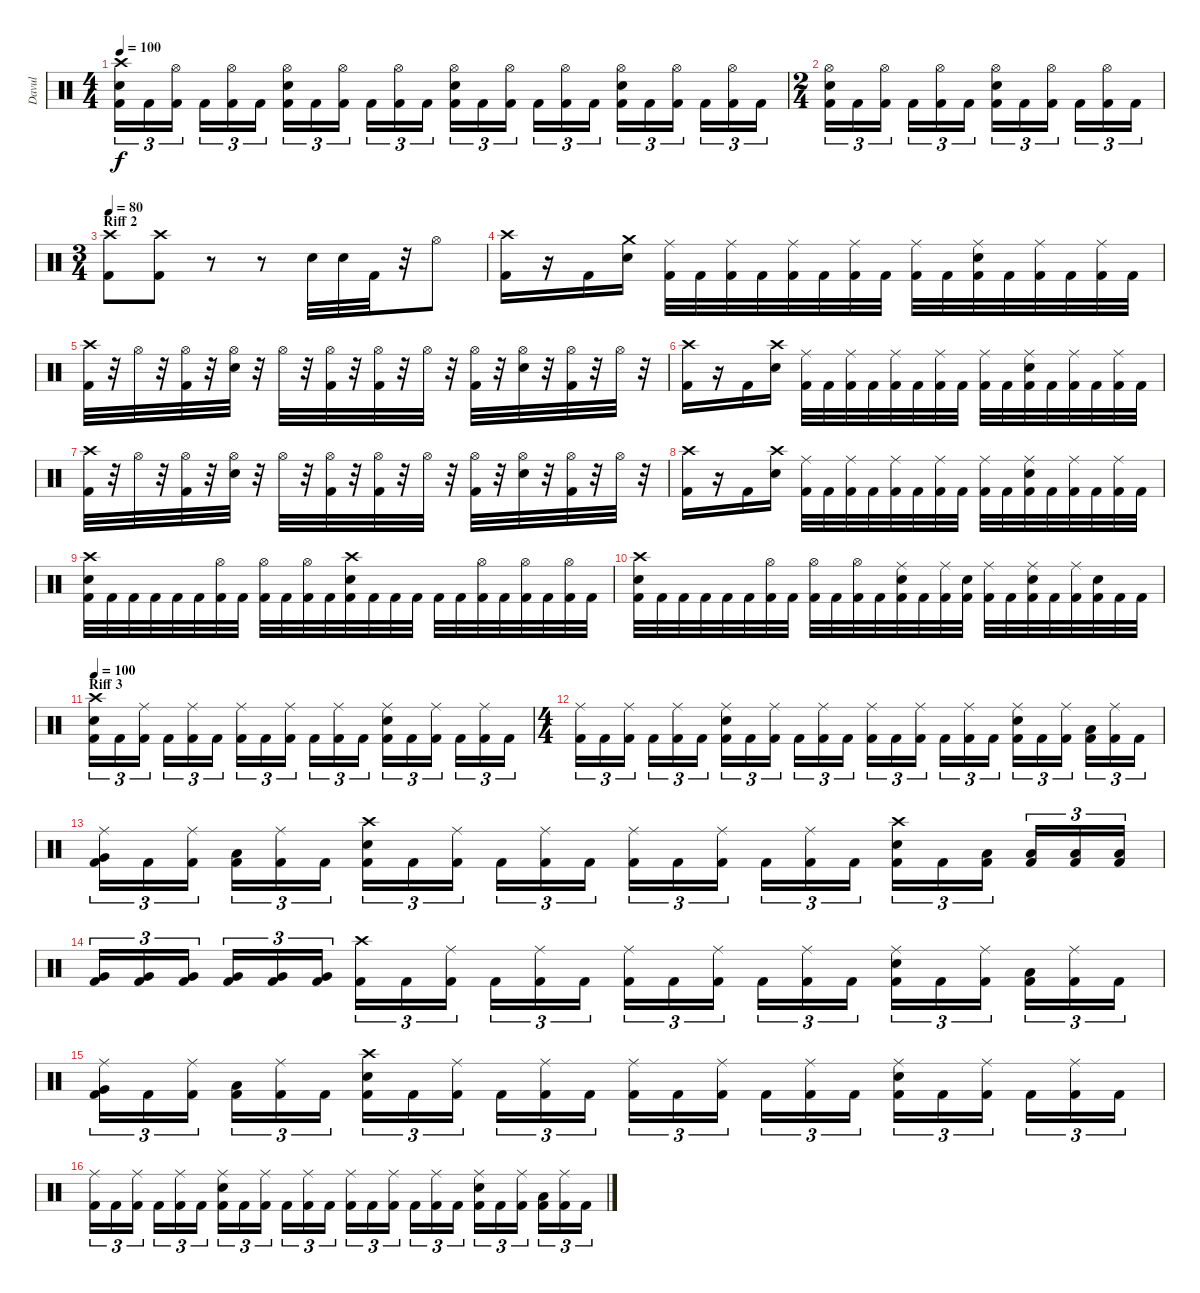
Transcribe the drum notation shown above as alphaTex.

\track ("Davul" "Davul") {instrument percussion}
\staff {score}
\articulation defaults
\ts (4 4)
\tempo 100
\clef neutral
\ks c
("Crash high (hit)" "Electric Snare (hit)" "Kick (hit) 2").16{tu (3 2) dy f} "Kick (hit) 2".16{tu (3 2)} ("Hi-Hat (open)" "Kick (hit) 2").16{tu (3 2)} "Kick (hit) 2".16{tu (3 2)} ("Hi-Hat (open)" "Kick (hit) 2").16{tu (3 2)} "Kick (hit) 2".16{tu (3 2)} ("Hi-Hat (open)" "Electric Snare (hit)" "Kick (hit) 2").16{tu (3 2)} "Kick (hit) 2".16{tu (3 2)} ("Hi-Hat (open)" "Kick (hit) 2").16{tu (3 2)} "Kick (hit) 2".16{tu (3 2)} ("Hi-Hat (open)" "Kick (hit) 2").16{tu (3 2)} "Kick (hit) 2".16{tu (3 2)} ("Hi-Hat (open)" "Electric Snare (hit)" "Kick (hit) 2").16{tu (3 2)} "Kick (hit) 2".16{tu (3 2)} ("Hi-Hat (open)" "Kick (hit) 2").16{tu (3 2)} "Kick (hit) 2".16{tu (3 2)} ("Hi-Hat (open)" "Kick (hit) 2").16{tu (3 2)} "Kick (hit) 2".16{tu (3 2)} ("Hi-Hat (open)" "Electric Snare (hit)" "Kick (hit) 2").16{tu (3 2)} "Kick (hit) 2".16{tu (3 2)} ("Hi-Hat (open)" "Kick (hit) 2").16{tu (3 2)} "Kick (hit) 2".16{tu (3 2)} ("Hi-Hat (open)" "Kick (hit) 2").16{tu (3 2)} "Kick (hit) 2".16{tu (3 2)} |
\ts (2 4)
("Hi-Hat (open)" "Electric Snare (hit)" "Kick (hit) 2").16{tu (3 2)} "Kick (hit) 2".16{tu (3 2)} ("Hi-Hat (open)" "Kick (hit) 2").16{tu (3 2)} "Kick (hit) 2".16{tu (3 2)} ("Hi-Hat (open)" "Kick (hit) 2").16{tu (3 2)} "Kick (hit) 2".16{tu (3 2)} ("Hi-Hat (open)" "Electric Snare (hit)" "Kick (hit) 2").16{tu (3 2)} "Kick (hit) 2".16{tu (3 2)} ("Hi-Hat (open)" "Kick (hit) 2").16{tu (3 2)} "Kick (hit) 2".16{tu (3 2)} ("Hi-Hat (open)" "Kick (hit) 2").16{tu (3 2)} "Kick (hit) 2".16{tu (3 2)} |
\ts (3 4)
\section ("" "Riff 2")
\tempo 80
("Crash high (hit)" "Kick (hit) 2").8 ("Crash high (hit)" "Kick (hit) 2").8 r.8 r.8 "Electric Snare (hit)".32 "Electric Snare (hit)".32 "Kick (hit) 2".32 r.32 "Hi-Hat (open)".8 |
("Crash high (hit)" "Kick (hit) 2").16 r.16 "Kick (hit) 2".16 ("Crash medium (hit)" "Electric Snare (hit)").16 ("Ride (middle)" "Kick (hit) 2").32 "Kick (hit) 2".32 ("Ride (middle)" "Kick (hit) 2").32 "Kick (hit) 2".32 ("Ride (middle)" "Kick (hit) 2").32 "Kick (hit) 2".32 ("Ride (middle)" "Kick (hit) 2").32 "Kick (hit) 2".32 ("Ride (middle)" "Kick (hit) 2").32 "Kick (hit) 2".32 ("Ride (middle)" "Electric Snare (hit)" "Kick (hit) 2").32 "Kick (hit) 2".32 ("Ride (middle)" "Kick (hit) 2").32 "Kick (hit) 2".32 ("Ride (middle)" "Kick (hit) 2").32 "Kick (hit) 2".32 |
("Crash high (hit)" "Kick (hit) 2").32 r.32 "Hi-Hat (open)".32 r.32 ("Hi-Hat (open)" "Kick (hit) 2").32 r.32 ("Hi-Hat (open)" "Electric Snare (hit)").32 r.32 "Hi-Hat (open)".32 r.32 ("Hi-Hat (open)" "Kick (hit) 2").32 r.32 ("Hi-Hat (open)" "Kick (hit) 2").32 r.32 "Hi-Hat (open)".32 r.32 ("Hi-Hat (open)" "Kick (hit) 2").32 r.32 ("Hi-Hat (open)" "Electric Snare (hit)").32 r.32 ("Hi-Hat (open)" "Kick (hit) 2").32 r.32 "Hi-Hat (open)".32 r.32 |
("Crash high (hit)" "Kick (hit) 2").16 r.16 "Kick (hit) 2".16 ("Crash high (hit)" "Electric Snare (hit)").16 ("Ride (middle)" "Kick (hit) 2").32 "Kick (hit) 2".32 ("Ride (middle)" "Kick (hit) 2").32 "Kick (hit) 2".32 ("Ride (middle)" "Kick (hit) 2").32 "Kick (hit) 2".32 ("Ride (middle)" "Kick (hit) 2").32 "Kick (hit) 2".32 ("Ride (middle)" "Kick (hit) 2").32 "Kick (hit) 2".32 ("Ride (middle)" "Electric Snare (hit)" "Kick (hit) 2").32 "Kick (hit) 2".32 ("Ride (middle)" "Kick (hit) 2").32 "Kick (hit) 2".32 ("Ride (middle)" "Kick (hit) 2").32 "Kick (hit) 2".32 |
("Crash high (hit)" "Kick (hit) 2").32 r.32 "Hi-Hat (open)".32 r.32 ("Hi-Hat (open)" "Kick (hit) 2").32 r.32 ("Hi-Hat (open)" "Electric Snare (hit)").32 r.32 "Hi-Hat (open)".32 r.32 ("Hi-Hat (open)" "Kick (hit) 2").32 r.32 ("Hi-Hat (open)" "Kick (hit) 2").32 r.32 "Hi-Hat (open)".32 r.32 ("Hi-Hat (open)" "Kick (hit) 2").32 r.32 ("Hi-Hat (open)" "Electric Snare (hit)").32 r.32 ("Hi-Hat (open)" "Kick (hit) 2").32 r.32 "Hi-Hat (open)".32 r.32 |
("Crash high (hit)" "Kick (hit) 2").16 r.16 "Kick (hit) 2".16 ("Crash high (hit)" "Electric Snare (hit)").16 ("Ride (middle)" "Kick (hit) 2").32 "Kick (hit) 2".32 ("Ride (middle)" "Kick (hit) 2").32 "Kick (hit) 2".32 ("Ride (middle)" "Kick (hit) 2").32 "Kick (hit) 2".32 ("Ride (middle)" "Kick (hit) 2").32 "Kick (hit) 2".32 ("Ride (middle)" "Kick (hit) 2").32 "Kick (hit) 2".32 ("Ride (middle)" "Electric Snare (hit)" "Kick (hit) 2").32 "Kick (hit) 2".32 ("Ride (middle)" "Kick (hit) 2").32 "Kick (hit) 2".32 ("Ride (middle)" "Kick (hit) 2").32 "Kick (hit) 2".32 |
("Crash high (hit)" "Electric Snare (hit)" "Kick (hit) 2").32 "Kick (hit) 2".32 "Kick (hit) 2".32 "Kick (hit) 2".32 "Kick (hit) 2".32 "Kick (hit) 2".32 ("Hi-Hat (open)" "Kick (hit) 2").32 "Kick (hit) 2".32 ("Hi-Hat (open)" "Kick (hit) 2").32 "Kick (hit) 2".32 ("Hi-Hat (open)" "Kick (hit) 2").32 "Kick (hit) 2".32 ("Crash high (hit)" "Electric Snare (hit)" "Kick (hit) 2").32 "Kick (hit) 2".32 "Kick (hit) 2".32 "Kick (hit) 2".32 "Kick (hit) 2".32 "Kick (hit) 2".32 ("Hi-Hat (open)" "Kick (hit) 2").32 "Kick (hit) 2".32 ("Hi-Hat (open)" "Kick (hit) 2").32 "Kick (hit) 2".32 ("Hi-Hat (open)" "Kick (hit) 2").32 "Kick (hit) 2".32 |
("Crash high (hit)" "Electric Snare (hit)" "Kick (hit) 2").32 "Kick (hit) 2".32 "Kick (hit) 2".32 "Kick (hit) 2".32 "Kick (hit) 2".32 "Kick (hit) 2".32 ("Hi-Hat (open)" "Kick (hit) 2").32 "Kick (hit) 2".32 ("Hi-Hat (open)" "Kick (hit) 2").32 "Kick (hit) 2".32 ("Hi-Hat (open)" "Kick (hit) 2").32 "Kick (hit) 2".32 ("Ride (middle)" "Electric Snare (hit)" "Kick (hit) 2").32 "Kick (hit) 2".32 ("Ride (middle)" "Kick (hit) 2").32 ("Electric Snare (hit)" "Kick (hit) 2").32 ("Ride (middle)" "Kick (hit) 2").32 "Kick (hit) 2".32 ("Ride (middle)" "Electric Snare (hit)" "Kick (hit) 2").32 "Kick (hit) 2".32 ("Ride (middle)" "Kick (hit) 2").32 ("Electric Snare (hit)" "Kick (hit) 2").32 "Kick (hit) 2".32 "Kick (hit) 2".32 |
\section ("" "Riff 3")
\tempo 100
("Crash high (hit)" "Electric Snare (hit)" "Kick (hit) 2").16{tu (3 2)} "Kick (hit) 2".16{tu (3 2)} ("Ride (middle)" "Kick (hit) 2").16{tu (3 2)} "Kick (hit) 2".16{tu (3 2)} ("Ride (middle)" "Kick (hit) 2").16{tu (3 2)} "Kick (hit) 2".16{tu (3 2)} ("Ride (middle)" "Kick (hit) 2").16{tu (3 2)} "Kick (hit) 2".16{tu (3 2)} ("Ride (middle)" "Kick (hit) 2").16{tu (3 2)} "Kick (hit) 2".16{tu (3 2)} ("Ride (middle)" "Kick (hit) 2").16{tu (3 2)} "Kick (hit) 2".16{tu (3 2)} ("Ride (middle)" "Electric Snare (hit)" "Kick (hit) 2").16{tu (3 2)} "Kick (hit) 2".16{tu (3 2)} ("Ride (middle)" "Kick (hit) 2").16{tu (3 2)} "Kick (hit) 2".16{tu (3 2)} ("Ride (middle)" "Kick (hit) 2").16{tu (3 2)} "Kick (hit) 2".16{tu (3 2)} |
\ts (4 4)
("Ride (middle)" "Kick (hit) 2").16{tu (3 2)} "Kick (hit) 2".16{tu (3 2)} ("Ride (middle)" "Kick (hit) 2").16{tu (3 2)} "Kick (hit) 2".16{tu (3 2)} ("Ride (middle)" "Kick (hit) 2").16{tu (3 2)} "Kick (hit) 2".16{tu (3 2)} ("Ride (middle)" "Electric Snare (hit)" "Kick (hit) 2").16{tu (3 2)} "Kick (hit) 2".16{tu (3 2)} ("Ride (middle)" "Kick (hit) 2").16{tu (3 2)} "Kick (hit) 2".16{tu (3 2)} ("Ride (middle)" "Kick (hit) 2").16{tu (3 2)} "Kick (hit) 2".16{tu (3 2)} ("Ride (middle)" "Kick (hit) 2").16{tu (3 2)} "Kick (hit) 2".16{tu (3 2)} ("Ride (middle)" "Kick (hit) 2").16{tu (3 2)} "Kick (hit) 2".16{tu (3 2)} ("Ride (middle)" "Kick (hit) 2").16{tu (3 2)} "Kick (hit) 2".16{tu (3 2)} ("Ride (middle)" "Electric Snare (hit)" "Kick (hit) 2").16{tu (3 2)} "Kick (hit) 2".16{tu (3 2)} ("Ride (middle)" "Kick (hit) 2").16{tu (3 2)} ("Low Tom (hit)" "Kick (hit) 2").16{tu (3 2)} ("Ride (middle)" "Kick (hit) 2").16{tu (3 2)} "Kick (hit) 2".16{tu (3 2)} |
("Ride (middle)" "Very Low Tom (hit)" "Kick (hit) 2").16{tu (3 2)} "Kick (hit) 2".16{tu (3 2)} ("Ride (middle)" "Kick (hit) 2").16{tu (3 2)} ("Low Floor Tom (hit)" "Kick (hit) 2").16{tu (3 2)} ("Ride (middle)" "Kick (hit) 2").16{tu (3 2)} "Kick (hit) 2".16{tu (3 2)} ("Crash high (hit)" "Electric Snare (hit)" "Kick (hit) 2").16{tu (3 2)} "Kick (hit) 2".16{tu (3 2)} ("Ride (middle)" "Kick (hit) 2").16{tu (3 2)} "Kick (hit) 2".16{tu (3 2)} ("Ride (middle)" "Kick (hit) 2").16{tu (3 2)} "Kick (hit) 2".16{tu (3 2)} ("Ride (middle)" "Kick (hit) 2").16{tu (3 2)} "Kick (hit) 2".16{tu (3 2)} ("Ride (middle)" "Kick (hit) 2").16{tu (3 2)} "Kick (hit) 2".16{tu (3 2)} ("Ride (middle)" "Kick (hit) 2").16{tu (3 2)} "Kick (hit) 2".16{tu (3 2)} ("Crash high (hit)" "Electric Snare (hit)" "Kick (hit) 2").16{tu (3 2)} "Kick (hit) 2".16{tu (3 2)} ("Low Tom (hit)" "Kick (hit) 2").16{tu (3 2)} ("Low Tom (hit)" "Kick (hit) 2").16{tu (3 2)} ("Low Tom (hit)" "Kick (hit) 2").16{tu (3 2)} ("Low Tom (hit)" "Kick (hit) 2").16{tu (3 2)} |
("Very Low Tom (hit)" "Kick (hit) 2").16{tu (3 2)} ("Very Low Tom (hit)" "Kick (hit) 2").16{tu (3 2)} ("Very Low Tom (hit)" "Kick (hit) 2").16{tu (3 2)} ("Very Low Tom (hit)" "Kick (hit) 2").16{tu (3 2)} ("Very Low Tom (hit)" "Kick (hit) 2").16{tu (3 2)} ("Very Low Tom (hit)" "Kick (hit) 2").16{tu (3 2)} ("Crash high (hit)" "Kick (hit) 2").16{tu (3 2)} "Kick (hit) 2".16{tu (3 2)} ("Ride (middle)" "Kick (hit) 2").16{tu (3 2)} "Kick (hit) 2".16{tu (3 2)} ("Ride (middle)" "Kick (hit) 2").16{tu (3 2)} "Kick (hit) 2".16{tu (3 2)} ("Ride (middle)" "Kick (hit) 2").16{tu (3 2)} "Kick (hit) 2".16{tu (3 2)} ("Ride (middle)" "Kick (hit) 2").16{tu (3 2)} "Kick (hit) 2".16{tu (3 2)} ("Ride (middle)" "Kick (hit) 2").16{tu (3 2)} "Kick (hit) 2".16{tu (3 2)} ("Ride (middle)" "Electric Snare (hit)" "Kick (hit) 2").16{tu (3 2)} "Kick (hit) 2".16{tu (3 2)} ("Ride (middle)" "Kick (hit) 2").16{tu (3 2)} ("Low Tom (hit)" "Kick (hit) 2").16{tu (3 2)} ("Ride (middle)" "Kick (hit) 2").16{tu (3 2)} "Kick (hit) 2".16{tu (3 2)} |
("Ride (middle)" "Very Low Tom (hit)" "Kick (hit) 2").16{tu (3 2)} "Kick (hit) 2".16{tu (3 2)} ("Ride (middle)" "Kick (hit) 2").16{tu (3 2)} ("Low Floor Tom (hit)" "Kick (hit) 2").16{tu (3 2)} ("Ride (middle)" "Kick (hit) 2").16{tu (3 2)} "Kick (hit) 2".16{tu (3 2)} ("Crash high (hit)" "Electric Snare (hit)" "Kick (hit) 2").16{tu (3 2)} "Kick (hit) 2".16{tu (3 2)} ("Ride (middle)" "Kick (hit) 2").16{tu (3 2)} "Kick (hit) 2".16{tu (3 2)} ("Ride (middle)" "Kick (hit) 2").16{tu (3 2)} "Kick (hit) 2".16{tu (3 2)} ("Ride (middle)" "Kick (hit) 2").16{tu (3 2)} "Kick (hit) 2".16{tu (3 2)} ("Ride (middle)" "Kick (hit) 2").16{tu (3 2)} "Kick (hit) 2".16{tu (3 2)} ("Ride (middle)" "Kick (hit) 2").16{tu (3 2)} "Kick (hit) 2".16{tu (3 2)} ("Ride (middle)" "Electric Snare (hit)" "Kick (hit) 2").16{tu (3 2)} "Kick (hit) 2".16{tu (3 2)} ("Ride (middle)" "Kick (hit) 2").16{tu (3 2)} "Kick (hit) 2".16{tu (3 2)} ("Ride (middle)" "Kick (hit) 2").16{tu (3 2)} "Kick (hit) 2".16{tu (3 2)} |
("Ride (middle)" "Kick (hit) 2").16{tu (3 2)} "Kick (hit) 2".16{tu (3 2)} ("Ride (middle)" "Kick (hit) 2").16{tu (3 2)} "Kick (hit) 2".16{tu (3 2)} ("Ride (middle)" "Kick (hit) 2").16{tu (3 2)} "Kick (hit) 2".16{tu (3 2)} ("Ride (middle)" "Electric Snare (hit)" "Kick (hit) 2").16{tu (3 2)} "Kick (hit) 2".16{tu (3 2)} ("Ride (middle)" "Kick (hit) 2").16{tu (3 2)} "Kick (hit) 2".16{tu (3 2)} ("Ride (middle)" "Kick (hit) 2").16{tu (3 2)} "Kick (hit) 2".16{tu (3 2)} ("Ride (middle)" "Kick (hit) 2").16{tu (3 2)} "Kick (hit) 2".16{tu (3 2)} ("Ride (middle)" "Kick (hit) 2").16{tu (3 2)} "Kick (hit) 2".16{tu (3 2)} ("Ride (middle)" "Kick (hit) 2").16{tu (3 2)} "Kick (hit) 2".16{tu (3 2)} ("Ride (middle)" "Electric Snare (hit)" "Kick (hit) 2").16{tu (3 2)} "Kick (hit) 2".16{tu (3 2)} ("Ride (middle)" "Kick (hit) 2").16{tu (3 2)} ("Low Tom (hit)" "Kick (hit) 2").16{tu (3 2)} ("Ride (middle)" "Kick (hit) 2").16{tu (3 2)} "Kick (hit) 2".16{tu (3 2)}
